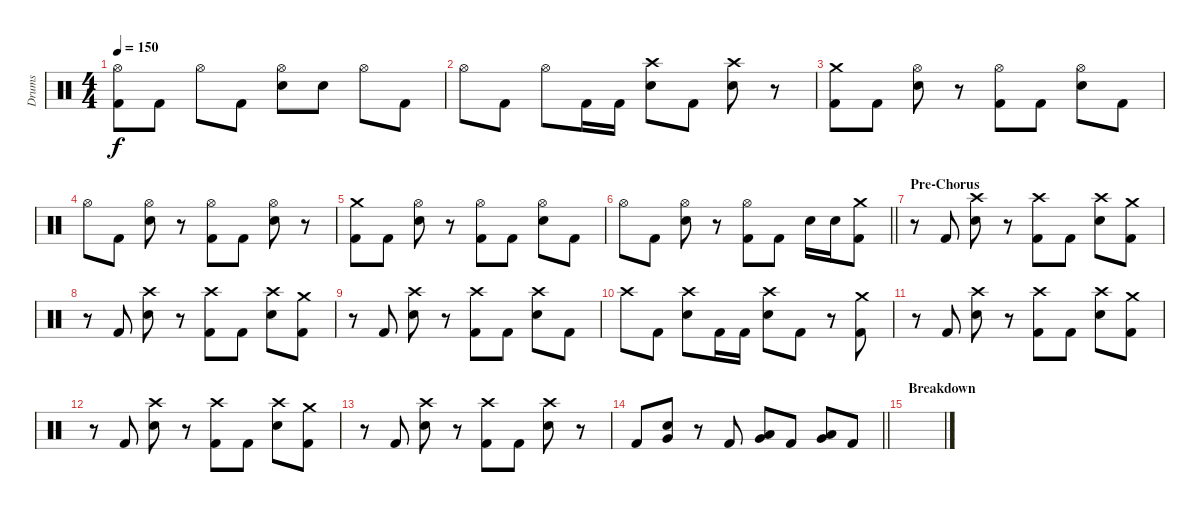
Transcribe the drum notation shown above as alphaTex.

\track ("Drums" "Drums") {instrument percussion}
\staff {score}
\articulation defaults
\ts (4 4)
\tempo 150
\clef neutral
\ks c
("Hi-Hat (open)" "Kick (hit) 2").8{dy f} "Kick (hit) 2".8 "Hi-Hat (open)".8 "Kick (hit) 2".8 ("Hi-Hat (open)" "Electric Snare (hit)").8 "Electric Snare (hit)".8 "Hi-Hat (open)".8 "Kick (hit) 2".8 |
"Hi-Hat (open)".8 "Kick (hit) 2".8 "Hi-Hat (open)".8 "Kick (hit) 2".16 "Kick (hit) 2".16 ("Crash high (hit)" "Electric Snare (hit)").8 "Kick (hit) 2".8 ("Crash high (hit)" "Electric Snare (hit)").8 r.8 |
("Crash medium (hit)" "Kick (hit) 2").8 "Kick (hit) 2".8 ("Hi-Hat (open)" "Electric Snare (hit)").8 r.8 ("Hi-Hat (open)" "Kick (hit) 2").8 "Kick (hit) 2".8 ("Hi-Hat (open)" "Electric Snare (hit)").8 "Kick (hit) 2".8 |
"Hi-Hat (open)".8 "Kick (hit) 2".8 ("Hi-Hat (open)" "Electric Snare (hit)").8 r.8 ("Hi-Hat (open)" "Kick (hit) 2").8 "Kick (hit) 2".8 ("Hi-Hat (open)" "Electric Snare (hit)").8 r.8 |
("Crash medium (hit)" "Kick (hit) 2").8 "Kick (hit) 2".8 ("Hi-Hat (open)" "Electric Snare (hit)").8 r.8 ("Hi-Hat (open)" "Kick (hit) 2").8 "Kick (hit) 2".8 ("Hi-Hat (open)" "Electric Snare (hit)").8 "Kick (hit) 2".8 |
\barLineRight lightlight "Hi-Hat (open)".8 "Kick (hit) 2".8
("Hi-Hat (open)" "Electric Snare (hit)").8 r.8 ("Hi-Hat (open)" "Kick (hit) 2").8 "Kick (hit) 2".8 "Electric Snare (hit)".16 "Electric Snare (hit)".16 ("Crash medium (hit)" "Kick (hit) 2").8 |
\section ("" "Pre-Chorus")
r.8 "Kick (hit) 2".8 ("Crash high (hit)" "Electric Snare (hit)").8 r.8 ("Crash high (hit)" "Kick (hit) 2").8 "Kick (hit) 2".8 ("Crash high (hit)" "Electric Snare (hit)").8 ("Crash medium (hit)" "Kick (hit) 2").8 |
r.8 "Kick (hit) 2".8 ("Crash high (hit)" "Electric Snare (hit)").8 r.8 ("Crash high (hit)" "Kick (hit) 2").8 "Kick (hit) 2".8 ("Crash high (hit)" "Electric Snare (hit)").8 ("Crash medium (hit)" "Kick (hit) 2").8 |
r.8 "Kick (hit) 2".8 ("Crash high (hit)" "Electric Snare (hit)").8 r.8 ("Crash high (hit)" "Kick (hit) 2").8 "Kick (hit) 2".8 ("Crash high (hit)" "Electric Snare (hit)").8 "Kick (hit) 2".8 |
"Crash high (hit)".8 "Kick (hit) 2".8 ("Crash high (hit)" "Electric Snare (hit)").8 "Kick (hit) 2".16 "Kick (hit) 2".16 ("Crash high (hit)" "Electric Snare (hit)").8 "Kick (hit) 2".8 r.8 ("Crash medium (hit)" "Kick (hit) 2").8 |
r.8 "Kick (hit) 2".8 ("Crash high (hit)" "Electric Snare (hit)").8 r.8 ("Crash high (hit)" "Kick (hit) 2").8 "Kick (hit) 2".8 ("Crash high (hit)" "Electric Snare (hit)").8 ("Crash medium (hit)" "Kick (hit) 2").8 |
r.8 "Kick (hit) 2".8 ("Crash high (hit)" "Electric Snare (hit)").8 r.8 ("Crash high (hit)" "Kick (hit) 2").8 "Kick (hit) 2".8 ("Crash high (hit)" "Electric Snare (hit)").8 ("Crash medium (hit)" "Kick (hit) 2").8 |
r.8 "Kick (hit) 2".8 ("Crash high (hit)" "Electric Snare (hit)").8 r.8 ("Crash high (hit)" "Kick (hit) 2").8 "Kick (hit) 2".8 ("Crash high (hit)" "Electric Snare (hit)").8 r.8 |
\barLineRight lightlight "Kick (hit) 2".8
("Very Low Tom (hit)" "Electric Snare (hit)").8 r.8 "Kick (hit) 2".8 ("Very Low Tom (hit)" "Low Tom (hit)").8 "Kick (hit) 2".8 ("Low Floor Tom (hit)" "Very Low Tom (hit)").8 "Kick (hit) 2".8 |
\section ("" "Breakdown")
